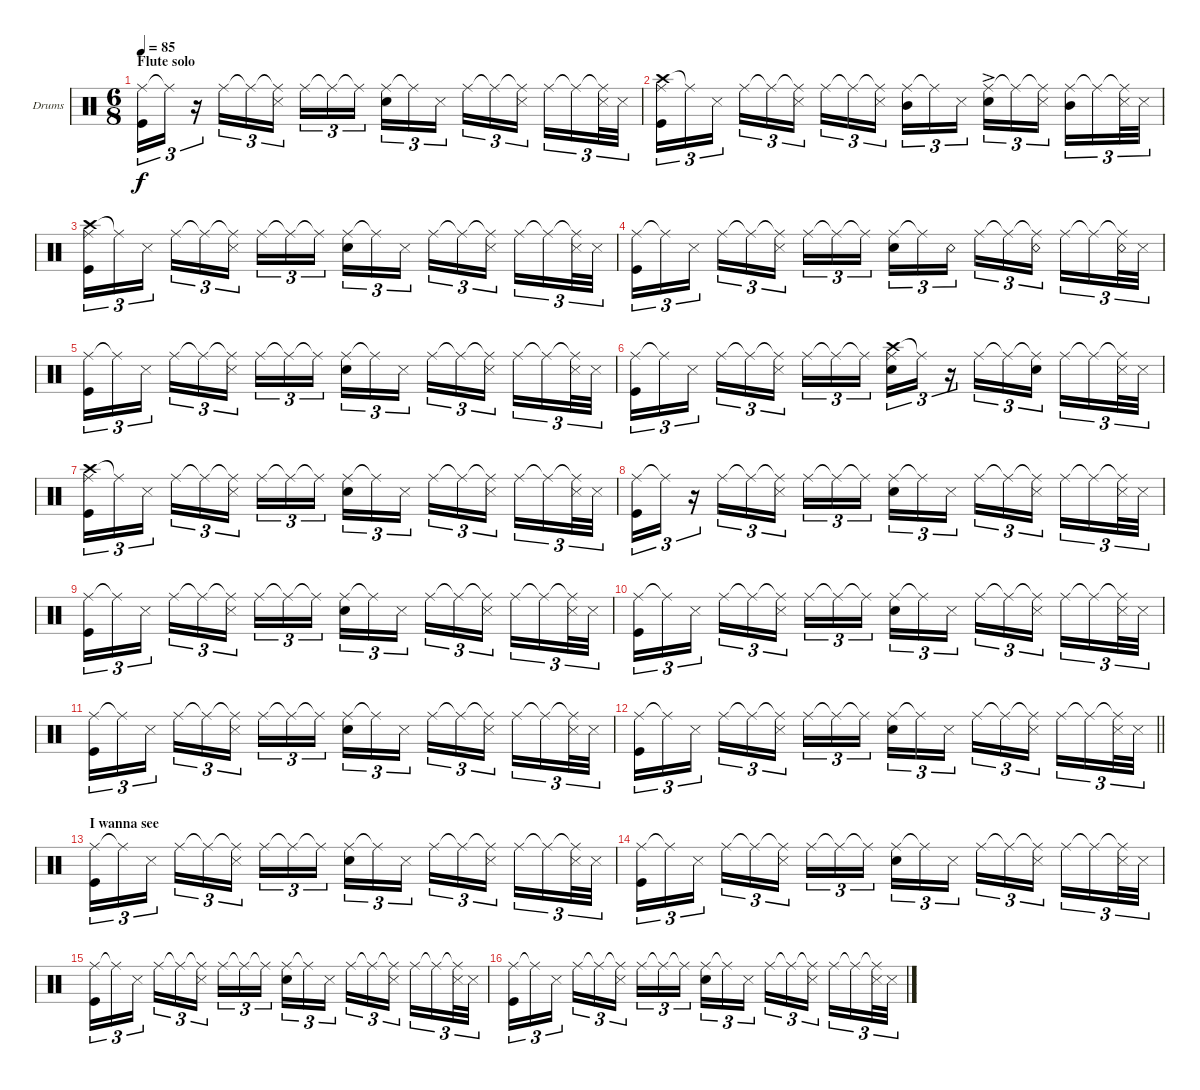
\bracketExtendMode groupsimilarinstruments
\firstSystemTrackNameOrientation horizontal
\otherSystemsTrackNameOrientation horizontal
\track ("Drumkit" "Drums") {instrument percussion}
\staff {score}
\articulation defaults
\ts (6 8)
\section ("" "Flute solo")
\tempo 85
\clef neutral
\ks c
("Ride (middle)" "Kick (hit)").16{tu (3 2) dy f} "Ride (middle)"{t}.16{tu (3 2)} r.16{tu (3 2)} "Ride (middle)".16{tu (3 2)} "Ride (middle)"{t}.16{tu (3 2)} ("Ride (middle)"{t} "Snare (side stick) 3").16{tu (3 2)} "Ride (middle)".16{tu (3 2)} "Ride (middle)"{t}.16{tu (3 2)} "Ride (middle)"{t}.16{tu (3 2)} ("Ride (middle)" "Snare (hit) 2").16{tu (3 2)} "Ride (middle)"{t}.16{tu (3 2)} "Snare (side stick) 3".16{tu (3 2)} "Ride (middle)".16{tu (3 2)} "Ride (middle)"{t}.16{tu (3 2)} ("Ride (middle)"{t} "Snare (side stick) 3").16{tu (3 2)} "Ride (middle)".16{tu (3 2)} "Ride (middle)"{t}.16{tu (3 2)} ("Ride (middle)"{t} "Snare (side stick) 3").32{tu (3 2)} "Snare (side stick) 3".32{tu (3 2)} |
("Crash high (hit)" "Ride (middle)" "Kick (hit)").16{tu (3 2)} "Ride (middle)"{t}.16{tu (3 2)} "Snare (side stick) 3".16{tu (3 2)} "Ride (middle)".16{tu (3 2)} "Ride (middle)"{t}.16{tu (3 2)} ("Ride (middle)"{t} "Snare (side stick) 3").16{tu (3 2)} "Ride (middle)".16{tu (3 2)} "Ride (middle)"{t}.16{tu (3 2)} ("Ride (middle)"{t} "Snare (side stick) 3").16{tu (3 2)} ("Ride (middle)" "Mid Tom (hit)").16{tu (3 2)} "Ride (middle)"{t}.16{tu (3 2)} "Snare (side stick) 3".16{tu (3 2)} ("Ride (middle)" "Snare (hit) 2"{ac}).16{tu (3 2)} "Ride (middle)"{t}.16{tu (3 2)} ("Ride (middle)"{t} "Snare (side stick) 3").16{tu (3 2)} ("Ride (middle)" "Mid Tom (hit)").16{tu (3 2)} "Ride (middle)"{t}.16{tu (3 2)} ("Ride (middle)"{t} "Snare (side stick) 3").32{tu (3 2)} "Snare (side stick) 3".32{tu (3 2)} |
("Crash high (hit)" "Ride (middle)" "Kick (hit)").16{tu (3 2)} "Ride (middle)"{t}.16{tu (3 2)} "Snare (side stick) 3".16{tu (3 2)} "Ride (middle)".16{tu (3 2)} "Ride (middle)"{t}.16{tu (3 2)} ("Ride (middle)"{t} "Snare (side stick) 3").16{tu (3 2)} "Ride (middle)".16{tu (3 2)} "Ride (middle)"{t}.16{tu (3 2)} "Ride (middle)"{t}.16{tu (3 2)} ("Ride (middle)" "Snare (hit) 2").16{tu (3 2)} "Ride (middle)"{t}.16{tu (3 2)} "Snare (side stick) 3".16{tu (3 2)} "Ride (middle)".16{tu (3 2)} "Ride (middle)"{t}.16{tu (3 2)} ("Ride (middle)"{t} "Snare (side stick) 3").16{tu (3 2)} "Ride (middle)".16{tu (3 2)} "Ride (middle)"{t}.16{tu (3 2)} ("Ride (middle)"{t} "Snare (side stick) 3").32{tu (3 2)} "Snare (side stick) 3".32{tu (3 2)} |
("Ride (middle)" "Kick (hit)").16{tu (3 2)} "Ride (middle)"{t}.16{tu (3 2)} "Snare (side stick) 3".16{tu (3 2)} "Ride (middle)".16{tu (3 2)} "Ride (middle)"{t}.16{tu (3 2)} ("Ride (middle)"{t} "Snare (side stick) 3").16{tu (3 2)} "Ride (middle)".16{tu (3 2)} "Ride (middle)"{t}.16{tu (3 2)} "Ride (middle)"{t}.16{tu (3 2)} ("Ride (middle)" "Snare (hit) 2").16{tu (3 2)} "Ride (middle)"{t}.16{tu (3 2)} "Snare (rim shot)".16{tu (3 2)} "Ride (middle)".16{tu (3 2)} "Ride (middle)"{t}.16{tu (3 2)} ("Ride (middle)"{t} "Snare (rim shot)").16{tu (3 2)} "Ride (middle)".16{tu (3 2)} "Ride (middle)"{t}.16{tu (3 2)} ("Ride (middle)"{t} "Snare (rim shot)").32{tu (3 2)} "Snare (side stick) 3".32{tu (3 2)} |
("Ride (middle)" "Kick (hit)").16{tu (3 2)} "Ride (middle)"{t}.16{tu (3 2)} "Snare (side stick) 3".16{tu (3 2)} "Ride (middle)".16{tu (3 2)} "Ride (middle)"{t}.16{tu (3 2)} ("Ride (middle)"{t} "Snare (side stick) 3").16{tu (3 2)} "Ride (middle)".16{tu (3 2)} "Ride (middle)"{t}.16{tu (3 2)} "Ride (middle)"{t}.16{tu (3 2)} ("Ride (middle)" "Snare (hit) 2").16{tu (3 2)} "Ride (middle)"{t}.16{tu (3 2)} "Snare (side stick) 3".16{tu (3 2)} "Ride (middle)".16{tu (3 2)} "Ride (middle)"{t}.16{tu (3 2)} ("Ride (middle)"{t} "Snare (side stick) 3").16{tu (3 2)} "Ride (middle)".16{tu (3 2)} "Ride (middle)"{t}.16{tu (3 2)} ("Ride (middle)"{t} "Snare (side stick) 3").32{tu (3 2)} "Snare (side stick) 3".32{tu (3 2)} |
("Ride (middle)" "Kick (hit)").16{tu (3 2)} "Ride (middle)"{t}.16{tu (3 2)} "Snare (side stick) 3".16{tu (3 2)} "Ride (middle)".16{tu (3 2)} "Ride (middle)"{t}.16{tu (3 2)} ("Ride (middle)"{t} "Snare (side stick) 3").16{tu (3 2)} "Ride (middle)".16{tu (3 2)} "Ride (middle)"{t}.16{tu (3 2)} "Ride (middle)"{t}.16{tu (3 2)} ("Crash high (hit)" "Ride (middle)" "Snare (hit) 2").16{tu (3 2)} "Ride (middle)"{t}.16{tu (3 2)} r.16{tu (3 2)} "Ride (middle)".16{tu (3 2)} "Ride (middle)"{t}.16{tu (3 2)} ("Ride (middle)"{t} "Snare (hit) 2").16{tu (3 2)} "Ride (middle)".16{tu (3 2)} "Ride (middle)"{t}.16{tu (3 2)} ("Ride (middle)"{t} "Snare (side stick) 3").32{tu (3 2)} "Snare (side stick) 3".32{tu (3 2)} |
("Crash high (hit)" "Ride (middle)" "Kick (hit)").16{tu (3 2)} "Ride (middle)"{t}.16{tu (3 2)} "Snare (side stick) 3".16{tu (3 2)} "Ride (middle)".16{tu (3 2)} "Ride (middle)"{t}.16{tu (3 2)} ("Ride (middle)"{t} "Snare (side stick) 3").16{tu (3 2)} "Ride (middle)".16{tu (3 2)} "Ride (middle)"{t}.16{tu (3 2)} "Ride (middle)"{t}.16{tu (3 2)} ("Ride (middle)" "Snare (hit) 2").16{tu (3 2)} "Ride (middle)"{t}.16{tu (3 2)} "Snare (side stick) 3".16{tu (3 2)} "Ride (middle)".16{tu (3 2)} "Ride (middle)"{t}.16{tu (3 2)} ("Ride (middle)"{t} "Snare (side stick) 3").16{tu (3 2)} "Ride (middle)".16{tu (3 2)} "Ride (middle)"{t}.16{tu (3 2)} ("Ride (middle)"{t} "Snare (side stick) 3").32{tu (3 2)} "Snare (side stick) 3".32{tu (3 2)} |
("Ride (middle)" "Kick (hit)").16{tu (3 2)} "Ride (middle)"{t}.16{tu (3 2)} r.16{tu (3 2)} "Ride (middle)".16{tu (3 2)} "Ride (middle)"{t}.16{tu (3 2)} ("Ride (middle)"{t} "Snare (side stick) 3").16{tu (3 2)} "Ride (middle)".16{tu (3 2)} "Ride (middle)"{t}.16{tu (3 2)} "Ride (middle)"{t}.16{tu (3 2)} ("Ride (middle)" "Snare (hit) 2").16{tu (3 2)} "Ride (middle)"{t}.16{tu (3 2)} "Snare (side stick) 3".16{tu (3 2)} "Ride (middle)".16{tu (3 2)} "Ride (middle)"{t}.16{tu (3 2)} ("Ride (middle)"{t} "Snare (side stick) 3").16{tu (3 2)} "Ride (middle)".16{tu (3 2)} "Ride (middle)"{t}.16{tu (3 2)} ("Ride (middle)"{t} "Snare (side stick) 3").32{tu (3 2)} "Snare (side stick) 3".32{tu (3 2)} |
("Ride (middle)" "Kick (hit)").16{tu (3 2)} "Ride (middle)"{t}.16{tu (3 2)} "Snare (side stick) 3".16{tu (3 2)} "Ride (middle)".16{tu (3 2)} "Ride (middle)"{t}.16{tu (3 2)} ("Ride (middle)"{t} "Snare (side stick) 3").16{tu (3 2)} "Ride (middle)".16{tu (3 2)} "Ride (middle)"{t}.16{tu (3 2)} "Ride (middle)"{t}.16{tu (3 2)} ("Ride (middle)" "Snare (hit) 2").16{tu (3 2)} "Ride (middle)"{t}.16{tu (3 2)} "Snare (side stick) 3".16{tu (3 2)} "Ride (middle)".16{tu (3 2)} "Ride (middle)"{t}.16{tu (3 2)} ("Ride (middle)"{t} "Snare (side stick) 3").16{tu (3 2)} "Ride (middle)".16{tu (3 2)} "Ride (middle)"{t}.16{tu (3 2)} ("Ride (middle)"{t} "Snare (side stick) 3").32{tu (3 2)} "Snare (side stick) 3".32{tu (3 2)} |
("Ride (middle)" "Kick (hit)").16{tu (3 2)} "Ride (middle)"{t}.16{tu (3 2)} "Snare (side stick) 3".16{tu (3 2)} "Ride (middle)".16{tu (3 2)} "Ride (middle)"{t}.16{tu (3 2)} ("Ride (middle)"{t} "Snare (side stick) 3").16{tu (3 2)} "Ride (middle)".16{tu (3 2)} "Ride (middle)"{t}.16{tu (3 2)} "Ride (middle)"{t}.16{tu (3 2)} ("Ride (middle)" "Snare (hit) 2").16{tu (3 2)} "Ride (middle)"{t}.16{tu (3 2)} "Snare (side stick) 3".16{tu (3 2)} "Ride (middle)".16{tu (3 2)} "Ride (middle)"{t}.16{tu (3 2)} ("Ride (middle)"{t} "Snare (side stick) 3").16{tu (3 2)} "Ride (middle)".16{tu (3 2)} "Ride (middle)"{t}.16{tu (3 2)} ("Ride (middle)"{t} "Snare (side stick) 3").32{tu (3 2)} "Snare (side stick) 3".32{tu (3 2)} |
("Ride (middle)" "Kick (hit)").16{tu (3 2)} "Ride (middle)"{t}.16{tu (3 2)} "Snare (side stick) 3".16{tu (3 2)} "Ride (middle)".16{tu (3 2)} "Ride (middle)"{t}.16{tu (3 2)} ("Ride (middle)"{t} "Snare (side stick) 3").16{tu (3 2)} "Ride (middle)".16{tu (3 2)} "Ride (middle)"{t}.16{tu (3 2)} "Ride (middle)"{t}.16{tu (3 2)} ("Ride (middle)" "Snare (hit) 2").16{tu (3 2)} "Ride (middle)"{t}.16{tu (3 2)} "Snare (side stick) 3".16{tu (3 2)} "Ride (middle)".16{tu (3 2)} "Ride (middle)"{t}.16{tu (3 2)} ("Ride (middle)"{t} "Snare (side stick) 3").16{tu (3 2)} "Ride (middle)".16{tu (3 2)} "Ride (middle)"{t}.16{tu (3 2)} ("Ride (middle)"{t} "Snare (side stick) 3").32{tu (3 2)} "Snare (side stick) 3".32{tu (3 2)} |
\barLineRight lightlight
("Ride (middle)" "Kick (hit)").16{tu (3 2)} "Ride (middle)"{t}.16{tu (3 2)} "Snare (side stick) 3".16{tu (3 2)} "Ride (middle)".16{tu (3 2)} "Ride (middle)"{t}.16{tu (3 2)} ("Ride (middle)"{t} "Snare (side stick) 3").16{tu (3 2)} "Ride (middle)".16{tu (3 2)} "Ride (middle)"{t}.16{tu (3 2)} "Ride (middle)"{t}.16{tu (3 2)} ("Ride (middle)" "Snare (hit) 2").16{tu (3 2)} "Ride (middle)"{t}.16{tu (3 2)} "Snare (side stick) 3".16{tu (3 2)} "Ride (middle)".16{tu (3 2)} "Ride (middle)"{t}.16{tu (3 2)} ("Ride (middle)"{t} "Snare (side stick) 3").16{tu (3 2)} "Ride (middle)".16{tu (3 2)} "Ride (middle)"{t}.16{tu (3 2)} ("Ride (middle)"{t} "Snare (side stick) 3").32{tu (3 2)} "Snare (side stick) 3".32{tu (3 2)} |
\section ("" "I wanna see")
("Ride (middle)" "Kick (hit)").16{tu (3 2)} "Ride (middle)"{t}.16{tu (3 2)} "Snare (side stick) 3".16{tu (3 2)} "Ride (middle)".16{tu (3 2)} "Ride (middle)"{t}.16{tu (3 2)} ("Ride (middle)"{t} "Snare (side stick) 3").16{tu (3 2)} "Ride (middle)".16{tu (3 2)} "Ride (middle)"{t}.16{tu (3 2)} "Ride (middle)"{t}.16{tu (3 2)} ("Ride (middle)" "Snare (hit) 2").16{tu (3 2)} "Ride (middle)"{t}.16{tu (3 2)} "Snare (side stick) 3".16{tu (3 2)} "Ride (middle)".16{tu (3 2)} "Ride (middle)"{t}.16{tu (3 2)} ("Ride (middle)"{t} "Snare (side stick) 3").16{tu (3 2)} "Ride (middle)".16{tu (3 2)} "Ride (middle)"{t}.16{tu (3 2)} ("Ride (middle)"{t} "Snare (side stick) 3").32{tu (3 2)} "Snare (side stick) 3".32{tu (3 2)} |
("Ride (middle)" "Kick (hit)").16{tu (3 2)} "Ride (middle)"{t}.16{tu (3 2)} "Snare (side stick) 3".16{tu (3 2)} "Ride (middle)".16{tu (3 2)} "Ride (middle)"{t}.16{tu (3 2)} ("Ride (middle)"{t} "Snare (side stick) 3").16{tu (3 2)} "Ride (middle)".16{tu (3 2)} "Ride (middle)"{t}.16{tu (3 2)} "Ride (middle)"{t}.16{tu (3 2)} ("Ride (middle)" "Snare (hit) 2").16{tu (3 2)} "Ride (middle)"{t}.16{tu (3 2)} "Snare (side stick) 3".16{tu (3 2)} "Ride (middle)".16{tu (3 2)} "Ride (middle)"{t}.16{tu (3 2)} ("Ride (middle)"{t} "Snare (side stick) 3").16{tu (3 2)} "Ride (middle)".16{tu (3 2)} "Ride (middle)"{t}.16{tu (3 2)} ("Ride (middle)"{t} "Snare (side stick) 3").32{tu (3 2)} "Snare (side stick) 3".32{tu (3 2)} |
("Ride (middle)" "Kick (hit)").16{tu (3 2)} "Ride (middle)"{t}.16{tu (3 2)} "Snare (side stick) 3".16{tu (3 2)} "Ride (middle)".16{tu (3 2)} "Ride (middle)"{t}.16{tu (3 2)} ("Ride (middle)"{t} "Snare (side stick) 3").16{tu (3 2)} "Ride (middle)".16{tu (3 2)} "Ride (middle)"{t}.16{tu (3 2)} "Ride (middle)"{t}.16{tu (3 2)} ("Ride (middle)" "Snare (hit) 2").16{tu (3 2)} "Ride (middle)"{t}.16{tu (3 2)} "Snare (side stick) 3".16{tu (3 2)} "Ride (middle)".16{tu (3 2)} "Ride (middle)"{t}.16{tu (3 2)} ("Ride (middle)"{t} "Snare (side stick) 3").16{tu (3 2)} "Ride (middle)".16{tu (3 2)} "Ride (middle)"{t}.16{tu (3 2)} ("Ride (middle)"{t} "Snare (side stick) 3").32{tu (3 2)} "Snare (side stick) 3".32{tu (3 2)} |
("Ride (middle)" "Kick (hit)").16{tu (3 2)} "Ride (middle)"{t}.16{tu (3 2)} "Snare (side stick) 3".16{tu (3 2)} "Ride (middle)".16{tu (3 2)} "Ride (middle)"{t}.16{tu (3 2)} ("Ride (middle)"{t} "Snare (side stick) 3").16{tu (3 2)} "Ride (middle)".16{tu (3 2)} "Ride (middle)"{t}.16{tu (3 2)} "Ride (middle)"{t}.16{tu (3 2)} ("Ride (middle)" "Snare (hit) 2").16{tu (3 2)} "Ride (middle)"{t}.16{tu (3 2)} "Snare (side stick) 3".16{tu (3 2)} "Ride (middle)".16{tu (3 2)} "Ride (middle)"{t}.16{tu (3 2)} ("Ride (middle)"{t} "Snare (side stick) 3").16{tu (3 2)} "Ride (middle)".16{tu (3 2)} "Ride (middle)"{t}.16{tu (3 2)} ("Ride (middle)"{t} "Snare (side stick) 3").32{tu (3 2)} "Snare (side stick) 3".32{tu (3 2)}
